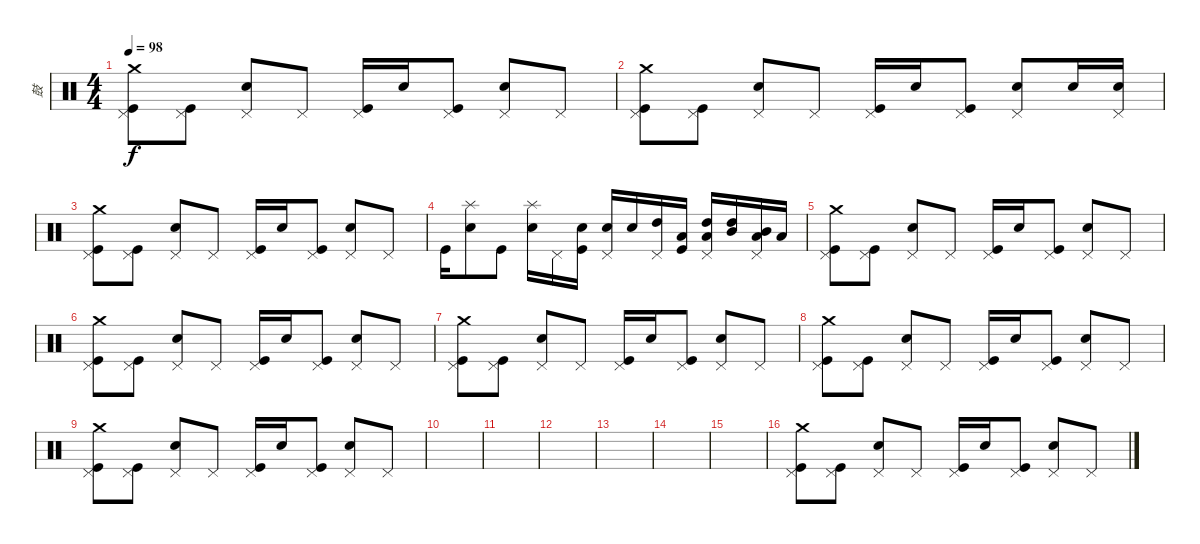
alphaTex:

\track ("鼓" "鼓") {instrument percussion}
\staff {score}
\articulation defaults
\ts (4 4)
\tempo 98
\clef neutral
\ks c
("Pedal Hi-Hat (hit)" "Kick (hit)" "Crash medium (hit)").8{dy f} ("Pedal Hi-Hat (hit)" "Kick (hit)").8 ("Pedal Hi-Hat (hit)" "Electric Snare (hit)").8 "Pedal Hi-Hat (hit)".8 ("Pedal Hi-Hat (hit)" "Kick (hit)").16 "Electric Snare (hit)".16 ("Pedal Hi-Hat (hit)" "Kick (hit)").8 ("Pedal Hi-Hat (hit)" "Electric Snare (hit)").8 "Pedal Hi-Hat (hit)".8 |
("Pedal Hi-Hat (hit)" "Kick (hit)" "Crash medium (hit)").8 ("Pedal Hi-Hat (hit)" "Kick (hit)").8 ("Pedal Hi-Hat (hit)" "Electric Snare (hit)").8 "Pedal Hi-Hat (hit)".8 ("Pedal Hi-Hat (hit)" "Kick (hit)").16 "Electric Snare (hit)".16 ("Pedal Hi-Hat (hit)" "Kick (hit)").8 ("Pedal Hi-Hat (hit)" "Electric Snare (hit)").8 "Electric Snare (hit)".16 ("Pedal Hi-Hat (hit)" "Electric Snare (hit)").16 |
("Pedal Hi-Hat (hit)" "Kick (hit)" "Crash medium (hit)").8 ("Pedal Hi-Hat (hit)" "Kick (hit)").8 ("Pedal Hi-Hat (hit)" "Electric Snare (hit)").8 "Pedal Hi-Hat (hit)".8 ("Pedal Hi-Hat (hit)" "Kick (hit)").16 "Electric Snare (hit)".16 ("Pedal Hi-Hat (hit)" "Kick (hit)").8 ("Pedal Hi-Hat (hit)" "Electric Snare (hit)").8 "Pedal Hi-Hat (hit)".8 |
"Kick (hit)".16 ("Splash (hit)" "Electric Snare (hit)").8 "Kick (hit)".8 ("Splash (hit)" "Electric Snare (hit)").16 "Pedal Hi-Hat (hit)".16 ("Electric Snare (hit)" "Kick (hit)").16 ("Pedal Hi-Hat (hit)" "Electric Snare (hit)").16 "Electric Snare (hit)".16 ("Pedal Hi-Hat (hit)" "High Tom (hit)").16 ("Low Tom (hit)" "Kick (hit)").16 ("Pedal Hi-Hat (hit)" "Low Tom (hit)" "High Tom (hit)").16 ("High Tom (hit)" "Mid Tom (hit)").16 ("Pedal Hi-Hat (hit)" "Low Tom (hit)" "Mid Tom (hit)").16 "Low Tom (hit)".16 |
("Pedal Hi-Hat (hit)" "Kick (hit)" "Crash medium (hit)").8 ("Pedal Hi-Hat (hit)" "Kick (hit)").8 ("Pedal Hi-Hat (hit)" "Electric Snare (hit)").8 "Pedal Hi-Hat (hit)".8 ("Pedal Hi-Hat (hit)" "Kick (hit)").16 "Electric Snare (hit)".16 ("Pedal Hi-Hat (hit)" "Kick (hit)").8 ("Pedal Hi-Hat (hit)" "Electric Snare (hit)").8 "Pedal Hi-Hat (hit)".8 |
("Pedal Hi-Hat (hit)" "Kick (hit)" "Crash medium (hit)").8 ("Pedal Hi-Hat (hit)" "Kick (hit)").8 ("Pedal Hi-Hat (hit)" "Electric Snare (hit)").8 "Pedal Hi-Hat (hit)".8 ("Pedal Hi-Hat (hit)" "Kick (hit)").16 "Electric Snare (hit)".16 ("Pedal Hi-Hat (hit)" "Kick (hit)").8 ("Pedal Hi-Hat (hit)" "Electric Snare (hit)").8 "Pedal Hi-Hat (hit)".8 |
("Pedal Hi-Hat (hit)" "Kick (hit)" "Crash medium (hit)").8 ("Pedal Hi-Hat (hit)" "Kick (hit)").8 ("Pedal Hi-Hat (hit)" "Electric Snare (hit)").8 "Pedal Hi-Hat (hit)".8 ("Pedal Hi-Hat (hit)" "Kick (hit)").16 "Electric Snare (hit)".16 ("Pedal Hi-Hat (hit)" "Kick (hit)").8 ("Pedal Hi-Hat (hit)" "Electric Snare (hit)").8 "Pedal Hi-Hat (hit)".8 |
("Pedal Hi-Hat (hit)" "Kick (hit)" "Crash medium (hit)").8 ("Pedal Hi-Hat (hit)" "Kick (hit)").8 ("Pedal Hi-Hat (hit)" "Electric Snare (hit)").8 "Pedal Hi-Hat (hit)".8 ("Pedal Hi-Hat (hit)" "Kick (hit)").16 "Electric Snare (hit)".16 ("Pedal Hi-Hat (hit)" "Kick (hit)").8 ("Pedal Hi-Hat (hit)" "Electric Snare (hit)").8 "Pedal Hi-Hat (hit)".8 |
("Pedal Hi-Hat (hit)" "Kick (hit)" "Crash medium (hit)").8 ("Pedal Hi-Hat (hit)" "Kick (hit)").8 ("Pedal Hi-Hat (hit)" "Electric Snare (hit)").8 "Pedal Hi-Hat (hit)".8 ("Pedal Hi-Hat (hit)" "Kick (hit)").16 "Electric Snare (hit)".16 ("Pedal Hi-Hat (hit)" "Kick (hit)").8 ("Pedal Hi-Hat (hit)" "Electric Snare (hit)").8 "Pedal Hi-Hat (hit)".8 |
|
|
|
|
|
|
("Pedal Hi-Hat (hit)" "Kick (hit)" "Crash medium (hit)").8 ("Pedal Hi-Hat (hit)" "Kick (hit)").8 ("Pedal Hi-Hat (hit)" "Electric Snare (hit)").8 "Pedal Hi-Hat (hit)".8 ("Pedal Hi-Hat (hit)" "Kick (hit)").16 "Electric Snare (hit)".16 ("Pedal Hi-Hat (hit)" "Kick (hit)").8 ("Pedal Hi-Hat (hit)" "Electric Snare (hit)").8 "Pedal Hi-Hat (hit)".8
